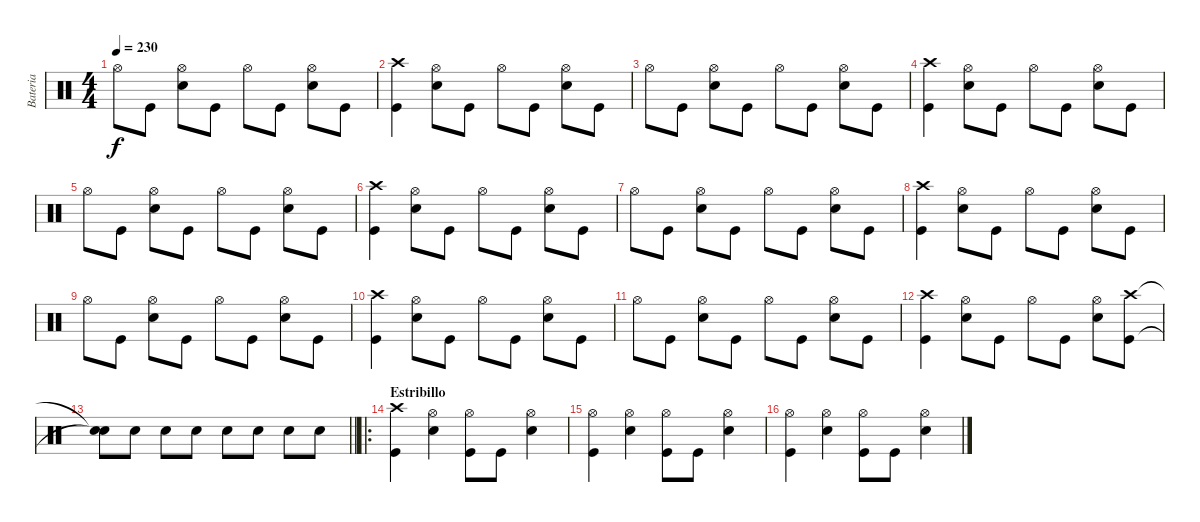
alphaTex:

\track ("Bateria" "Bateria") {instrument percussion}
\staff {score}
\articulation defaults
\ts (4 4)
\tempo 230
\clef neutral
\ks c "Hi-Hat (open)".8{dy f} "Kick (hit)".8
("Hi-Hat (open)" "Snare (hit) 2").8 "Kick (hit)".8 "Hi-Hat (open)".8 "Kick (hit)".8 ("Hi-Hat (open)" "Snare (hit) 2").8 "Kick (hit)".8 |
("Crash high (hit)" "Kick (hit)").4 ("Hi-Hat (open)" "Snare (hit) 2").8 "Kick (hit)".8 "Hi-Hat (open)".8 "Kick (hit)".8 ("Hi-Hat (open)" "Snare (hit) 2").8 "Kick (hit)".8 |
"Hi-Hat (open)".8 "Kick (hit)".8 ("Hi-Hat (open)" "Snare (hit) 2").8 "Kick (hit)".8 "Hi-Hat (open)".8 "Kick (hit)".8 ("Hi-Hat (open)" "Snare (hit) 2").8 "Kick (hit)".8 |
("Crash high (hit)" "Kick (hit)").4 ("Hi-Hat (open)" "Snare (hit) 2").8 "Kick (hit)".8 "Hi-Hat (open)".8 "Kick (hit)".8 ("Hi-Hat (open)" "Snare (hit) 2").8 "Kick (hit)".8 |
"Hi-Hat (open)".8 "Kick (hit)".8 ("Hi-Hat (open)" "Snare (hit) 2").8 "Kick (hit)".8 "Hi-Hat (open)".8 "Kick (hit)".8 ("Hi-Hat (open)" "Snare (hit) 2").8 "Kick (hit)".8 |
("Crash high (hit)" "Kick (hit)").4 ("Hi-Hat (open)" "Snare (hit) 2").8 "Kick (hit)".8 "Hi-Hat (open)".8 "Kick (hit)".8 ("Hi-Hat (open)" "Snare (hit) 2").8 "Kick (hit)".8 |
"Hi-Hat (open)".8 "Kick (hit)".8 ("Hi-Hat (open)" "Snare (hit) 2").8 "Kick (hit)".8 "Hi-Hat (open)".8 "Kick (hit)".8 ("Hi-Hat (open)" "Snare (hit) 2").8 "Kick (hit)".8 |
("Crash high (hit)" "Kick (hit)").4 ("Hi-Hat (open)" "Snare (hit) 2").8 "Kick (hit)".8 "Hi-Hat (open)".8 "Kick (hit)".8 ("Hi-Hat (open)" "Snare (hit) 2").8 "Kick (hit)".8 |
"Hi-Hat (open)".8 "Kick (hit)".8 ("Hi-Hat (open)" "Snare (hit) 2").8 "Kick (hit)".8 "Hi-Hat (open)".8 "Kick (hit)".8 ("Hi-Hat (open)" "Snare (hit) 2").8 "Kick (hit)".8 |
("Crash high (hit)" "Kick (hit)").4 ("Hi-Hat (open)" "Snare (hit) 2").8 "Kick (hit)".8 "Hi-Hat (open)".8 "Kick (hit)".8 ("Hi-Hat (open)" "Snare (hit) 2").8 "Kick (hit)".8 |
"Hi-Hat (open)".8 "Kick (hit)".8 ("Hi-Hat (open)" "Snare (hit) 2").8 "Kick (hit)".8 "Hi-Hat (open)".8 "Kick (hit)".8 ("Hi-Hat (open)" "Snare (hit) 2").8 "Kick (hit)".8 |
("Crash high (hit)" "Kick (hit)").4 ("Hi-Hat (open)" "Snare (hit) 2").8 "Kick (hit)".8 "Hi-Hat (open)".8 "Kick (hit)".8 ("Hi-Hat (open)" "Snare (hit) 2").8 ("Crash high (hit)" "Kick (hit)").8 |
\barLineRight lightlight
("Snare (hit)"{t} "Snare (hit)"{t}).8 "Snare (hit) 2".8 "Snare (hit) 2".8 "Snare (hit) 2".8 "Snare (hit) 2".8 "Snare (hit) 2".8 "Snare (hit) 2".8 "Snare (hit) 2".8 |
\ro
\section ("" "Estribillo")
("Crash high (hit)" "Kick (hit)").4 ("Hi-Hat (open)" "Snare (hit) 2").4 ("Hi-Hat (open)" "Kick (hit)").8 "Kick (hit)".8 ("Hi-Hat (open)" "Snare (hit) 2").4 |
("Hi-Hat (open)" "Kick (hit)").4 ("Hi-Hat (open)" "Snare (hit) 2").4 ("Hi-Hat (open)" "Kick (hit)").8 "Kick (hit)".8 ("Hi-Hat (open)" "Snare (hit) 2").4 |
("Hi-Hat (open)" "Kick (hit)").4 ("Hi-Hat (open)" "Snare (hit) 2").4 ("Hi-Hat (open)" "Kick (hit)").8 "Kick (hit)".8 ("Hi-Hat (open)" "Snare (hit) 2").4
